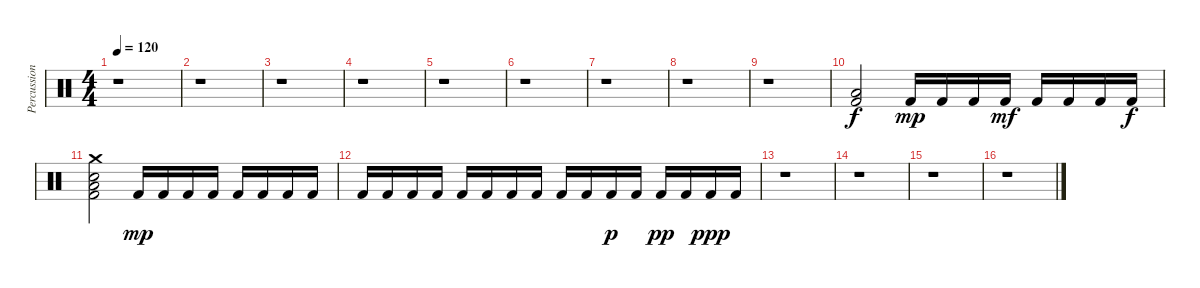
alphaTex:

\track ("Percussion" "Percussion") {instrument percussion}
\staff {score}
\articulation defaults
\ts (4 4)
\tempo 120
\clef neutral
\ks c
r.1{dy f} |
r.1 |
r.1 |
r.1 |
r.1 |
r.1 |
r.1 |
r.1 |
r.1 |
("Low Floor Tom (hit)" "Kick (hit) 2").2 "Kick (hit) 2".16{dy mp} "Kick (hit) 2".16 "Kick (hit) 2".16 "Kick (hit) 2".16{dy mf} "Kick (hit) 2".16 "Kick (hit) 2".16 "Kick (hit) 2".16 "Kick (hit) 2".16{dy f} |
("Crash medium (hit)" "Electric Snare (hit)" "Low Floor Tom (hit)" "Kick (hit) 2").2 "Kick (hit) 2".16{dy mp} "Kick (hit) 2".16 "Kick (hit) 2".16 "Kick (hit) 2".16 "Kick (hit) 2".16 "Kick (hit) 2".16 "Kick (hit) 2".16 "Kick (hit) 2".16 |
"Kick (hit) 2".16 "Kick (hit) 2".16 "Kick (hit) 2".16 "Kick (hit) 2".16 "Kick (hit) 2".16 "Kick (hit) 2".16 "Kick (hit) 2".16 "Kick (hit) 2".16 "Kick (hit) 2".16 "Kick (hit) 2".16 "Kick (hit) 2".16{dy p} "Kick (hit) 2".16 "Kick (hit) 2".16{dy pp} "Kick (hit) 2".16 "Kick (hit) 2".16{dy ppp} "Kick (hit) 2".16 |
r.1 |
r.1 |
r.1 |
r.1
